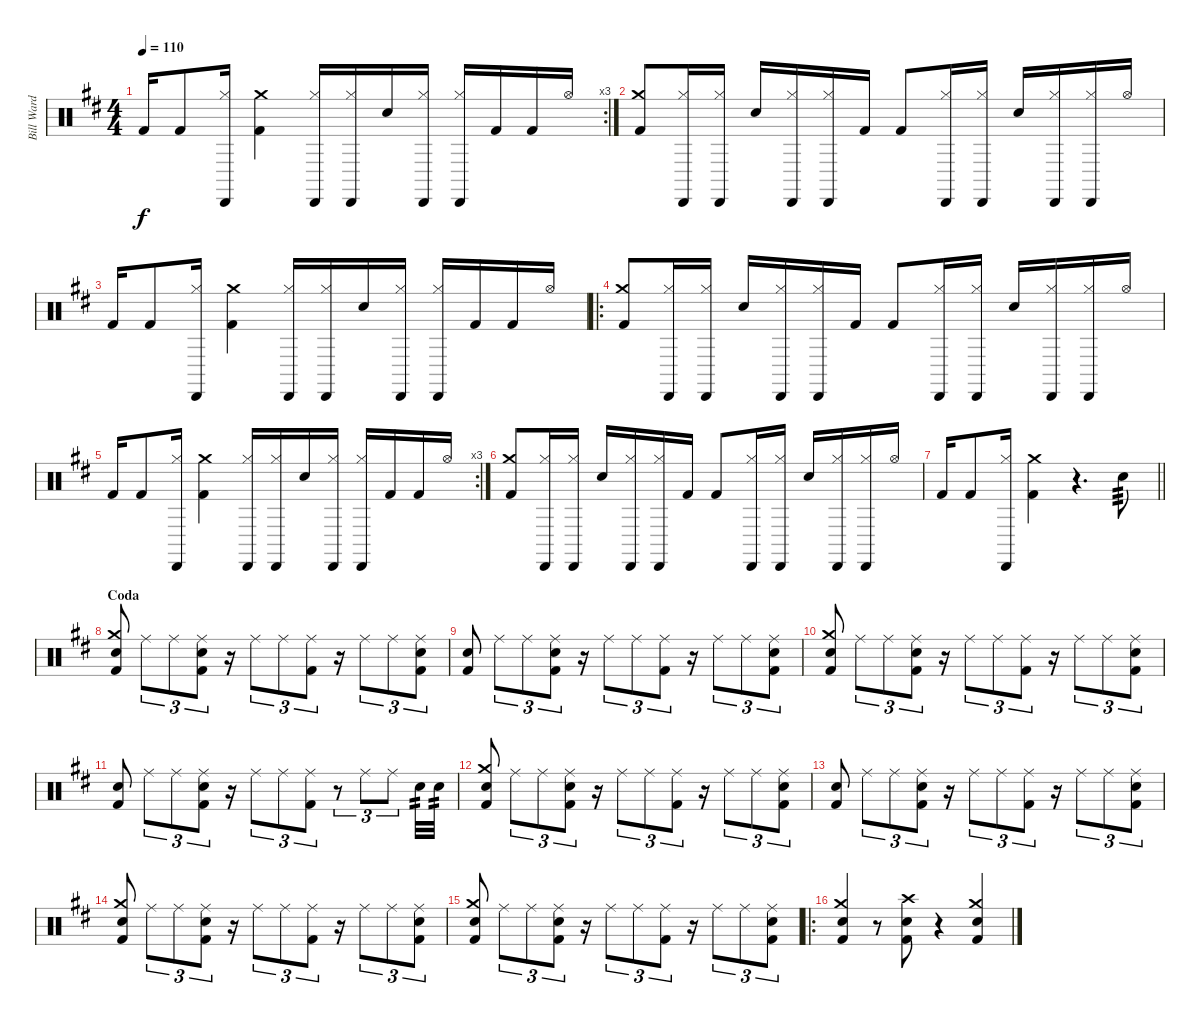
\track ("Bill Ward" "Bill Ward") {instrument percussion}
\staff {score}
\articulation defaults
\rc 3
\ts (4 4)
\tempo 110
\clef neutral
\ks d "Kick (hit) 2".16{dy f} "Kick (hit) 2".8
("Cabasa (hit)" "Hi-Hat (closed)").16 ("Crash medium (hit)" "Kick (hit) 2").4 ("Cabasa (hit)" "Hi-Hat (closed)").16 ("Cabasa (hit)" "Hi-Hat (closed)").16 "Snare (hit) 2".16 ("Cabasa (hit)" "Hi-Hat (closed)").16 ("Cabasa (hit)" "Hi-Hat (closed)").16 "Kick (hit) 2".16 "Kick (hit) 2".16 "Hi-Hat (open)".16 |
("Crash medium (hit)" "Kick (hit) 2").8 ("Cabasa (hit)" "Hi-Hat (closed)").16 ("Cabasa (hit)" "Hi-Hat (closed)").16 "Snare (hit) 2".16 ("Cabasa (hit)" "Hi-Hat (closed)").16 ("Cabasa (hit)" "Hi-Hat (closed)").16 "Kick (hit) 2".16 "Kick (hit) 2".8 ("Cabasa (hit)" "Hi-Hat (closed)").16 ("Cabasa (hit)" "Hi-Hat (closed)").16 "Snare (hit) 2".16 ("Cabasa (hit)" "Hi-Hat (closed)").16 ("Cabasa (hit)" "Hi-Hat (closed)").16 "Hi-Hat (open)".16 |
"Kick (hit) 2".16 "Kick (hit) 2".8 ("Cabasa (hit)" "Hi-Hat (closed)").16 ("Crash medium (hit)" "Kick (hit) 2").4 ("Cabasa (hit)" "Hi-Hat (closed)").16 ("Cabasa (hit)" "Hi-Hat (closed)").16 "Snare (hit) 2".16 ("Cabasa (hit)" "Hi-Hat (closed)").16 ("Cabasa (hit)" "Hi-Hat (closed)").16 "Kick (hit) 2".16 "Kick (hit) 2".16 "Hi-Hat (open)".16 |
\ro
("Crash medium (hit)" "Kick (hit) 2").8 ("Cabasa (hit)" "Hi-Hat (closed)").16 ("Cabasa (hit)" "Hi-Hat (closed)").16 "Snare (hit) 2".16 ("Cabasa (hit)" "Hi-Hat (closed)").16 ("Cabasa (hit)" "Hi-Hat (closed)").16 "Kick (hit) 2".16 "Kick (hit) 2".8 ("Cabasa (hit)" "Hi-Hat (closed)").16 ("Cabasa (hit)" "Hi-Hat (closed)").16 "Snare (hit) 2".16 ("Cabasa (hit)" "Hi-Hat (closed)").16 ("Cabasa (hit)" "Hi-Hat (closed)").16 "Hi-Hat (open)".16 |
\rc 3 "Kick (hit) 2".16 "Kick (hit) 2".8
("Cabasa (hit)" "Hi-Hat (closed)").16 ("Crash medium (hit)" "Kick (hit) 2").4 ("Cabasa (hit)" "Hi-Hat (closed)").16 ("Cabasa (hit)" "Hi-Hat (closed)").16 "Snare (hit) 2".16 ("Cabasa (hit)" "Hi-Hat (closed)").16 ("Cabasa (hit)" "Hi-Hat (closed)").16 "Kick (hit) 2".16 "Kick (hit) 2".16 "Hi-Hat (open)".16 |
("Crash medium (hit)" "Kick (hit) 2").8 ("Cabasa (hit)" "Hi-Hat (closed)").16 ("Cabasa (hit)" "Hi-Hat (closed)").16 "Snare (hit) 2".16 ("Cabasa (hit)" "Hi-Hat (closed)").16 ("Cabasa (hit)" "Hi-Hat (closed)").16 "Kick (hit) 2".16 "Kick (hit) 2".8 ("Cabasa (hit)" "Hi-Hat (closed)").16 ("Cabasa (hit)" "Hi-Hat (closed)").16 "Snare (hit) 2".16 ("Cabasa (hit)" "Hi-Hat (closed)").16 ("Cabasa (hit)" "Hi-Hat (closed)").16 "Hi-Hat (open)".16 |
\barLineRight lightlight "Kick (hit) 2".16 "Kick (hit) 2".8
("Cabasa (hit)" "Hi-Hat (closed)").16 ("Crash medium (hit)" "Kick (hit) 2").4 r.4{d} "Snare (hit) 2".8{tp 3} |
\section ("" "Coda")
("Crash medium (hit)" "Snare (hit) 2" "Kick (hit) 2").8 "Ride (middle)".8{tu (3 2)} "Ride (middle)".8{tu (3 2)} ("Ride (middle)" "Snare (hit) 2" "Kick (hit) 2").8{tu (3 2)} r.16 "Ride (middle)".8{tu (3 2)} "Ride (middle)".8{tu (3 2)} ("Ride (middle)" "Kick (hit) 2").8{tu (3 2)} r.16 "Ride (middle)".8{tu (3 2)} "Ride (middle)".8{tu (3 2)} ("Ride (middle)" "Snare (hit) 2" "Kick (hit) 2").8{tu (3 2)} |
("Snare (hit) 2" "Kick (hit) 2").8 "Ride (middle)".8{tu (3 2)} "Ride (middle)".8{tu (3 2)} ("Ride (middle)" "Snare (hit) 2" "Kick (hit) 2").8{tu (3 2)} r.16 "Ride (middle)".8{tu (3 2)} "Ride (middle)".8{tu (3 2)} ("Ride (middle)" "Kick (hit) 2").8{tu (3 2)} r.16 "Ride (middle)".8{tu (3 2)} "Ride (middle)".8{tu (3 2)} ("Ride (middle)" "Snare (hit) 2" "Kick (hit) 2").8{tu (3 2)} |
("Crash medium (hit)" "Snare (hit) 2" "Kick (hit) 2").8 "Ride (middle)".8{tu (3 2)} "Ride (middle)".8{tu (3 2)} ("Ride (middle)" "Snare (hit) 2" "Kick (hit) 2").8{tu (3 2)} r.16 "Ride (middle)".8{tu (3 2)} "Ride (middle)".8{tu (3 2)} ("Ride (middle)" "Kick (hit) 2").8{tu (3 2)} r.16 "Ride (middle)".8{tu (3 2)} "Ride (middle)".8{tu (3 2)} ("Ride (middle)" "Snare (hit) 2" "Kick (hit) 2").8{tu (3 2)} |
("Snare (hit) 2" "Kick (hit) 2").8 "Ride (middle)".8{tu (3 2)} "Ride (middle)".8{tu (3 2)} ("Ride (middle)" "Snare (hit) 2" "Kick (hit) 2").8{tu (3 2)} r.16 "Ride (middle)".8{tu (3 2)} "Ride (middle)".8{tu (3 2)} ("Ride (middle)" "Kick (hit) 2").8{tu (3 2)} r.8{tu (3 2)} "Ride (middle)".8{tu (3 2)} "Ride (middle)".8{tu (3 2)} "Snare (hit) 2".32{tp 2} "Snare (hit) 2".32{tp 2} |
("Crash medium (hit)" "Snare (hit) 2" "Kick (hit) 2").8 "Ride (middle)".8{tu (3 2)} "Ride (middle)".8{tu (3 2)} ("Ride (middle)" "Snare (hit) 2" "Kick (hit) 2").8{tu (3 2)} r.16 "Ride (middle)".8{tu (3 2)} "Ride (middle)".8{tu (3 2)} ("Ride (middle)" "Kick (hit) 2").8{tu (3 2)} r.16 "Ride (middle)".8{tu (3 2)} "Ride (middle)".8{tu (3 2)} ("Ride (middle)" "Snare (hit) 2" "Kick (hit) 2").8{tu (3 2)} |
("Snare (hit) 2" "Kick (hit) 2").8 "Ride (middle)".8{tu (3 2)} "Ride (middle)".8{tu (3 2)} ("Ride (middle)" "Snare (hit) 2" "Kick (hit) 2").8{tu (3 2)} r.16 "Ride (middle)".8{tu (3 2)} "Ride (middle)".8{tu (3 2)} ("Ride (middle)" "Kick (hit) 2").8{tu (3 2)} r.16 "Ride (middle)".8{tu (3 2)} "Ride (middle)".8{tu (3 2)} ("Ride (middle)" "Snare (hit) 2" "Kick (hit) 2").8{tu (3 2)} |
("Crash medium (hit)" "Snare (hit) 2" "Kick (hit) 2").8 "Ride (middle)".8{tu (3 2)} "Ride (middle)".8{tu (3 2)} ("Ride (middle)" "Snare (hit) 2" "Kick (hit) 2").8{tu (3 2)} r.16 "Ride (middle)".8{tu (3 2)} "Ride (middle)".8{tu (3 2)} ("Ride (middle)" "Kick (hit) 2").8{tu (3 2)} r.16 "Ride (middle)".8{tu (3 2)} "Ride (middle)".8{tu (3 2)} ("Ride (middle)" "Snare (hit) 2" "Kick (hit) 2").8{tu (3 2)} |
("Crash medium (hit)" "Snare (hit) 2" "Kick (hit) 2").8 "Ride (middle)".8{tu (3 2)} "Ride (middle)".8{tu (3 2)} ("Ride (middle)" "Snare (hit) 2" "Kick (hit) 2").8{tu (3 2)} r.16 "Ride (middle)".8{tu (3 2)} "Ride (middle)".8{tu (3 2)} ("Ride (middle)" "Kick (hit) 2").8{tu (3 2)} r.16 "Ride (middle)".8{tu (3 2)} "Ride (middle)".8{tu (3 2)} ("Ride (middle)" "Snare (hit) 2" "Kick (hit) 2").8{tu (3 2)} |
\ro
("Crash medium (hit)" "Snare (hit) 2" "Kick (hit) 2").4 r.8 ("Crash high (hit)" "Snare (hit) 2" "Kick (hit) 2").8 r.4 ("Crash medium (hit)" "Snare (hit) 2" "Kick (hit) 2").4
